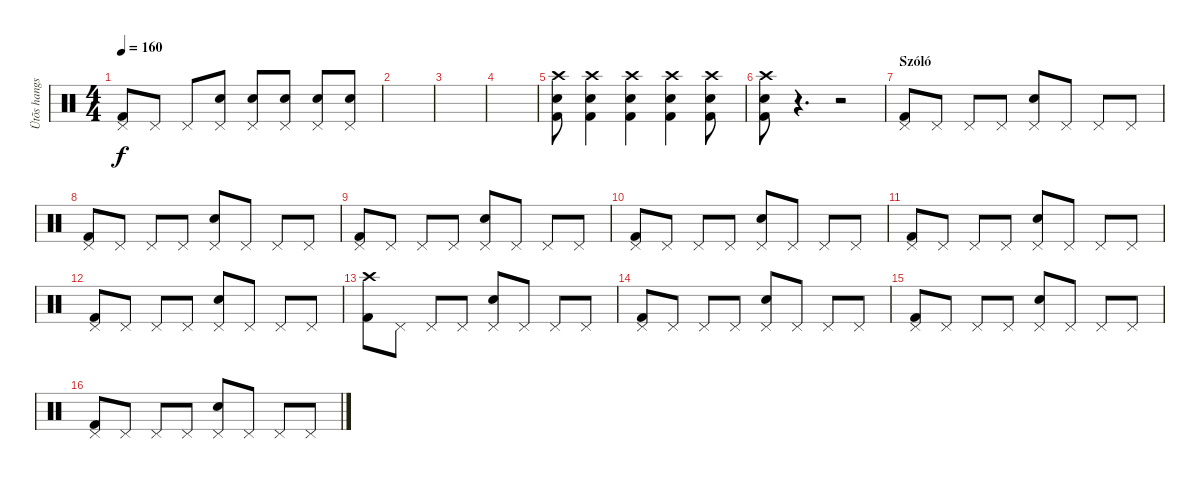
\track ("Ütõs hangszer" "Ütõs hangs") {instrument percussion}
\staff {score}
\articulation defaults
\ts (4 4)
\tempo 160
\clef neutral
\ks c
("Pedal Hi-Hat (hit)" "Kick (hit) 2").8{dy f} "Pedal Hi-Hat (hit)".8 "Pedal Hi-Hat (hit)".8 ("Pedal Hi-Hat (hit)" "Snare (hit) 2").8 ("Pedal Hi-Hat (hit)" "Snare (hit) 2").8 ("Pedal Hi-Hat (hit)" "Snare (hit) 2").8 ("Pedal Hi-Hat (hit)" "Snare (hit) 2").8 ("Pedal Hi-Hat (hit)" "Snare (hit) 2").8 |
|
|
|
("Crash high (hit)" "Kick (hit) 2" "Snare (hit) 2").8 ("Crash high (hit)" "Kick (hit) 2" "Snare (hit) 2").4 ("Crash high (hit)" "Kick (hit) 2" "Snare (hit) 2").4 ("Crash high (hit)" "Kick (hit) 2" "Snare (hit) 2").4 ("Crash high (hit)" "Kick (hit) 2" "Snare (hit) 2").8 |
("Crash high (hit)" "Kick (hit) 2" "Snare (hit) 2").8 r.4{d} r.2 |
\section ("" "Szóló")
("Pedal Hi-Hat (hit)" "Kick (hit) 2").8 "Pedal Hi-Hat (hit)".8 "Pedal Hi-Hat (hit)".8 "Pedal Hi-Hat (hit)".8 ("Pedal Hi-Hat (hit)" "Snare (hit) 2").8 "Pedal Hi-Hat (hit)".8 "Pedal Hi-Hat (hit)".8 "Pedal Hi-Hat (hit)".8 |
("Pedal Hi-Hat (hit)" "Kick (hit) 2").8 "Pedal Hi-Hat (hit)".8 "Pedal Hi-Hat (hit)".8 "Pedal Hi-Hat (hit)".8 ("Pedal Hi-Hat (hit)" "Snare (hit) 2").8 "Pedal Hi-Hat (hit)".8 "Pedal Hi-Hat (hit)".8 "Pedal Hi-Hat (hit)".8 |
("Pedal Hi-Hat (hit)" "Kick (hit) 2").8 "Pedal Hi-Hat (hit)".8 "Pedal Hi-Hat (hit)".8 "Pedal Hi-Hat (hit)".8 ("Pedal Hi-Hat (hit)" "Snare (hit) 2").8 "Pedal Hi-Hat (hit)".8 "Pedal Hi-Hat (hit)".8 "Pedal Hi-Hat (hit)".8 |
("Pedal Hi-Hat (hit)" "Kick (hit) 2").8 "Pedal Hi-Hat (hit)".8 "Pedal Hi-Hat (hit)".8 "Pedal Hi-Hat (hit)".8 ("Pedal Hi-Hat (hit)" "Snare (hit) 2").8 "Pedal Hi-Hat (hit)".8 "Pedal Hi-Hat (hit)".8 "Pedal Hi-Hat (hit)".8 |
("Pedal Hi-Hat (hit)" "Kick (hit) 2").8 "Pedal Hi-Hat (hit)".8 "Pedal Hi-Hat (hit)".8 "Pedal Hi-Hat (hit)".8 ("Pedal Hi-Hat (hit)" "Snare (hit) 2").8 "Pedal Hi-Hat (hit)".8 "Pedal Hi-Hat (hit)".8 "Pedal Hi-Hat (hit)".8 |
("Pedal Hi-Hat (hit)" "Kick (hit) 2").8 "Pedal Hi-Hat (hit)".8 "Pedal Hi-Hat (hit)".8 "Pedal Hi-Hat (hit)".8 ("Pedal Hi-Hat (hit)" "Snare (hit) 2").8 "Pedal Hi-Hat (hit)".8 "Pedal Hi-Hat (hit)".8 "Pedal Hi-Hat (hit)".8 |
("Crash high (hit)" "Kick (hit) 2").8 "Pedal Hi-Hat (hit)".8 "Pedal Hi-Hat (hit)".8 "Pedal Hi-Hat (hit)".8 ("Pedal Hi-Hat (hit)" "Snare (hit) 2").8 "Pedal Hi-Hat (hit)".8 "Pedal Hi-Hat (hit)".8 "Pedal Hi-Hat (hit)".8 |
("Pedal Hi-Hat (hit)" "Kick (hit) 2").8 "Pedal Hi-Hat (hit)".8 "Pedal Hi-Hat (hit)".8 "Pedal Hi-Hat (hit)".8 ("Pedal Hi-Hat (hit)" "Snare (hit) 2").8 "Pedal Hi-Hat (hit)".8 "Pedal Hi-Hat (hit)".8 "Pedal Hi-Hat (hit)".8 |
("Pedal Hi-Hat (hit)" "Kick (hit) 2").8 "Pedal Hi-Hat (hit)".8 "Pedal Hi-Hat (hit)".8 "Pedal Hi-Hat (hit)".8 ("Pedal Hi-Hat (hit)" "Snare (hit) 2").8 "Pedal Hi-Hat (hit)".8 "Pedal Hi-Hat (hit)".8 "Pedal Hi-Hat (hit)".8 |
("Pedal Hi-Hat (hit)" "Kick (hit) 2").8 "Pedal Hi-Hat (hit)".8 "Pedal Hi-Hat (hit)".8 "Pedal Hi-Hat (hit)".8 ("Pedal Hi-Hat (hit)" "Snare (hit) 2").8 "Pedal Hi-Hat (hit)".8 "Pedal Hi-Hat (hit)".8 "Pedal Hi-Hat (hit)".8
